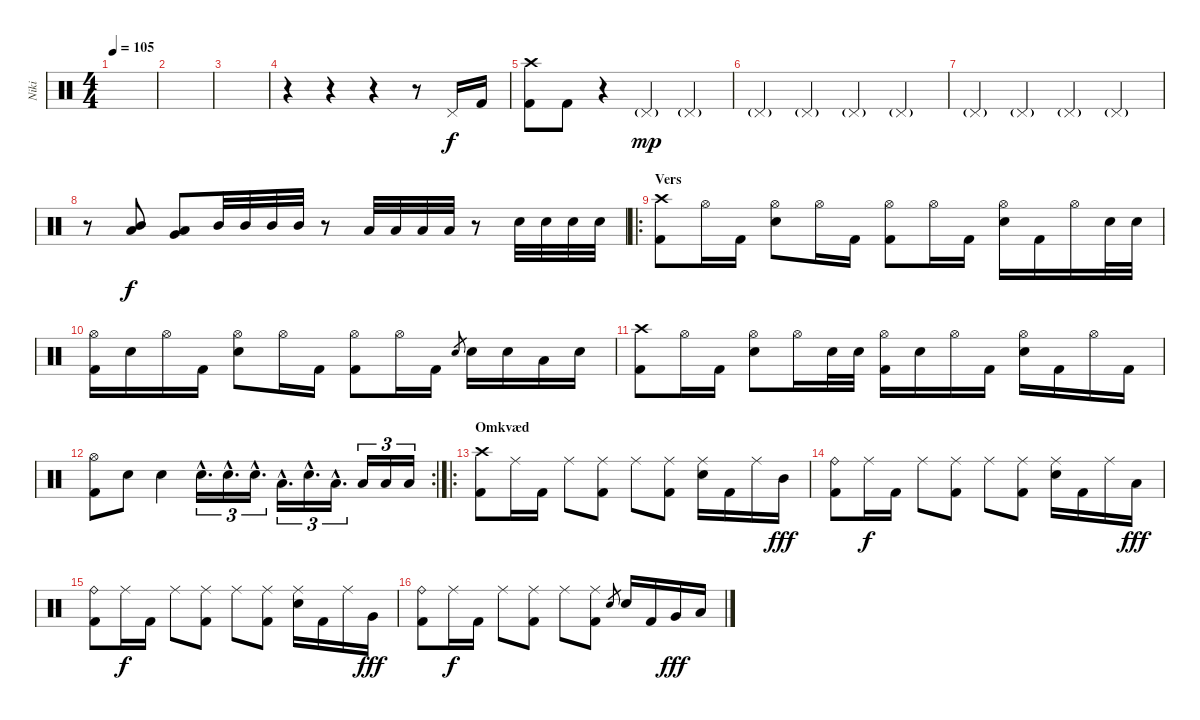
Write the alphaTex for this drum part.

\track ("Niki" "Niki") {instrument percussion}
\staff {score}
\articulation defaults
\ts (4 4)
\tempo 105
\clef neutral
\ks c
|
|
|
r.4 r.4 r.4 r.8 "Pedal Hi-Hat (hit)".16 "Kick (hit) 2".16 |
("Crash high (hit)" "Kick (hit) 2").8 "Kick (hit) 2".8 r.4 "Pedal Hi-Hat (hit)"{g}.4{dy mp} "Pedal Hi-Hat (hit)"{g}.4 |
"Pedal Hi-Hat (hit)"{g}.4 "Pedal Hi-Hat (hit)"{g}.4 "Pedal Hi-Hat (hit)"{g}.4 "Pedal Hi-Hat (hit)"{g}.4 |
"Pedal Hi-Hat (hit)"{g}.4 "Pedal Hi-Hat (hit)"{g}.4 "Pedal Hi-Hat (hit)"{g}.4 "Pedal Hi-Hat (hit)"{g}.4 |
r.8 ("Low Tom (hit)" "Mid Tom (hit)").8{dy f} ("Low Tom (hit)" "Very Low Tom (hit)").8 "Mid Tom (hit)".32 "Mid Tom (hit)".32 "Mid Tom (hit)".32 "Mid Tom (hit)".32 r.8 "Low Tom (hit)".32 "Low Tom (hit)".32 "Low Tom (hit)".32 "Low Tom (hit)".32 r.8 "Snare (hit) 2".32 "Snare (hit) 2".32 "Snare (hit) 2".32 "Snare (hit) 2".32 |
\ro
\section ("" "Vers")
("Crash high (hit)" "Kick (hit) 2").8 "Hi-Hat (open)".16 "Kick (hit) 2".16 ("Hi-Hat (open)" "Snare (hit) 2").8 "Hi-Hat (open)".16 "Kick (hit) 2".16 ("Hi-Hat (open)" "Kick (hit) 2").8 "Hi-Hat (open)".16 "Kick (hit) 2".16 ("Hi-Hat (open)" "Snare (hit) 2").16 "Kick (hit) 2".16 "Hi-Hat (open)".16 "Snare (hit) 2".32 "Snare (hit) 2".32 |
("Hi-Hat (open)" "Kick (hit) 2").16 "Snare (hit) 2".16 "Hi-Hat (open)".16 "Kick (hit) 2".16 ("Hi-Hat (open)" "Snare (hit) 2").8 "Hi-Hat (open)".16 "Kick (hit) 2".16 ("Hi-Hat (open)" "Kick (hit) 2").8 "Hi-Hat (open)".16 "Kick (hit) 2".16 "Snare (hit) 2".8{gr} "Snare (hit) 2".16 "Snare (hit) 2".16 "Low Tom (hit)".16 "Snare (hit) 2".16 |
("Crash high (hit)" "Kick (hit) 2").8 "Hi-Hat (open)".16 "Kick (hit) 2".16 ("Hi-Hat (open)" "Snare (hit) 2").8 "Hi-Hat (open)".16 "Snare (hit) 2".32 "Snare (hit) 2".32 ("Hi-Hat (open)" "Kick (hit) 2").16 "Snare (hit) 2".16 "Hi-Hat (open)".16 "Kick (hit) 2".16 ("Hi-Hat (open)" "Snare (hit) 2").16 "Kick (hit) 2".16 "Hi-Hat (open)".16 "Kick (hit) 2".16 |
\rc 2
("Hi-Hat (open)" "Kick (hit) 2").8 "Snare (hit) 2".8 "Snare (hit) 2".4 "Snare (hit) 2"{hac}.16{d tu (3 2)} "Snare (hit) 2"{hac}.16{d tu (3 2)} "Snare (hit) 2"{hac}.16{d tu (3 2)} "Low Tom (hit)"{hac}.16{d tu (3 2)} "Snare (hit) 2"{hac}.16{d tu (3 2)} "Low Tom (hit)"{hac}.16{d tu (3 2)} "Low Floor Tom (hit)".16{tu (3 2)} "Low Floor Tom (hit)".16{tu (3 2)} "Low Floor Tom (hit)".16{tu (3 2)} |
\ro
\section ("" "Omkvæd")
("Crash high (hit)" "Kick (hit) 2").8 "Ride (middle)".16 "Kick (hit) 2".16 "Ride (middle)".8 ("Ride (middle)" "Kick (hit) 2").8 "Ride (middle)".8 ("Ride (middle)" "Kick (hit) 2").8 ("Ride (middle)" "Snare (hit) 2").16 "Kick (hit) 2".16 "Ride (middle)".16 "Mid Tom (hit)".16{dy fff} |
("Ride (bell)" "Kick (hit) 2").8 "Ride (middle)".16{dy f} "Kick (hit) 2".16 "Ride (middle)".8 ("Ride (middle)" "Kick (hit) 2").8 "Ride (middle)".8 ("Ride (middle)" "Kick (hit) 2").8 ("Ride (middle)" "Snare (hit) 2").16 "Kick (hit) 2".16 "Ride (middle)".16 "Low Tom (hit)".16{dy fff} |
("Ride (bell)" "Kick (hit) 2").8 "Ride (middle)".16{dy f} "Kick (hit) 2".16 "Ride (middle)".8 ("Ride (middle)" "Kick (hit) 2").8 "Ride (middle)".8 ("Ride (middle)" "Kick (hit) 2").8 ("Ride (middle)" "Snare (hit) 2").16 "Kick (hit) 2".16 "Ride (middle)".16 "Very Low Tom (hit)".16{dy fff} |
("Ride (bell)" "Kick (hit) 2").8 "Ride (middle)".16{dy f} "Kick (hit) 2".16 "Ride (middle)".8 ("Ride (middle)" "Kick (hit) 2").8 "Ride (middle)".8 ("Ride (middle)" "Kick (hit) 2").8 "Snare (hit) 2".8{gr} "Snare (hit) 2".16 "Kick (hit) 2".16 "Very Low Tom (hit)".16{dy fff} "Low Floor Tom (hit)".16
